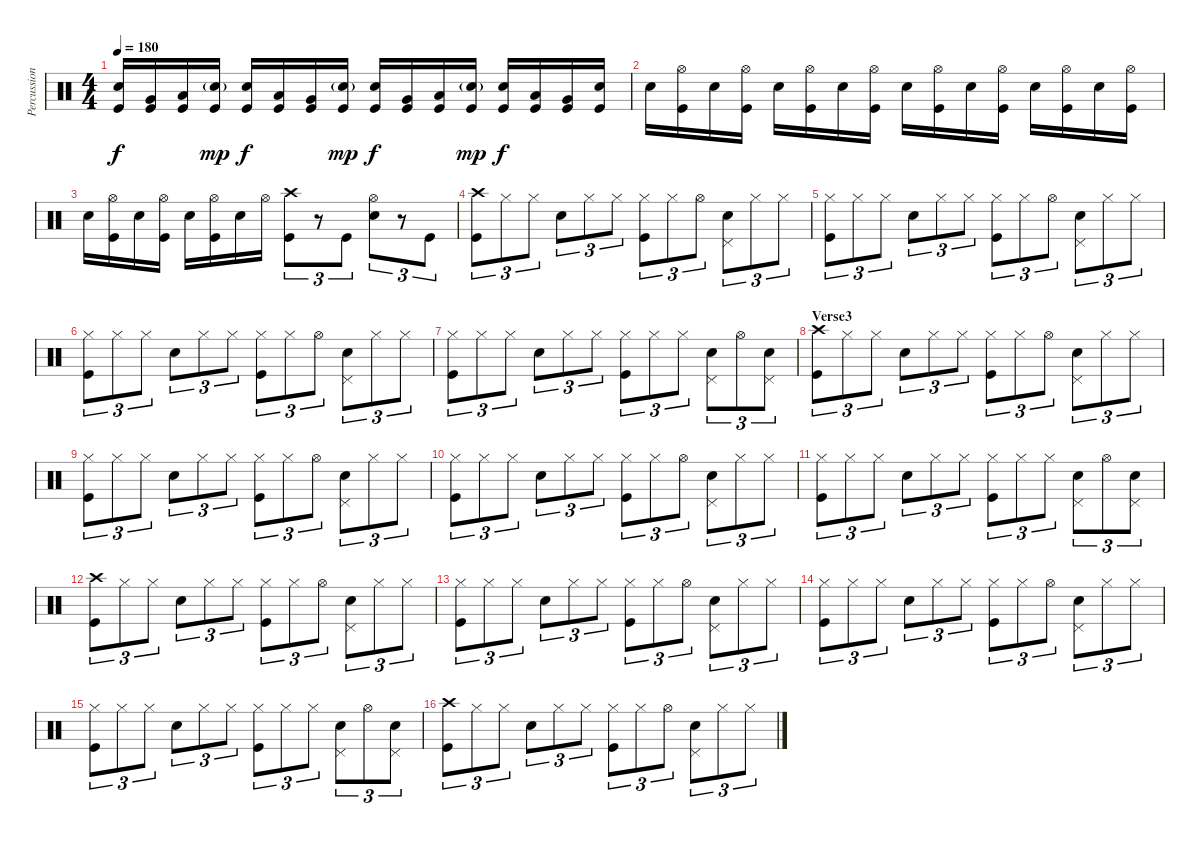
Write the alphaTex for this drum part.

\track ("Percussions" "Percussion") {instrument percussion}
\staff {score}
\articulation defaults
\ts (4 4)
\tempo 180
\clef neutral
\ks c
("Electric Snare (hit)" "Kick (hit)").16{dy f} ("Very Low Tom (hit)" "Kick (hit)").16 ("Low Floor Tom (hit)" "Kick (hit)").16 ("Electric Snare (hit)"{g} "Kick (hit)").16{dy mp} ("Electric Snare (hit)" "Kick (hit)").16{dy f} ("Low Tom (hit)" "Kick (hit)").16 ("Very Low Tom (hit)" "Kick (hit)").16 ("Electric Snare (hit)"{g} "Kick (hit)").16{dy mp} ("Electric Snare (hit)" "Kick (hit)").16{dy f} ("Very Low Tom (hit)" "Kick (hit)").16 ("Low Floor Tom (hit)" "Kick (hit)").16 ("Electric Snare (hit)"{g} "Kick (hit)").16{dy mp} ("Electric Snare (hit)" "Kick (hit)").16{dy f} ("Low Tom (hit)" "Kick (hit)").16 ("Very Low Tom (hit)" "Kick (hit)").16 ("Electric Snare (hit)" "Kick (hit)").16 |
"Electric Snare (hit)".16 ("Hi-Hat (open)" "Kick (hit)").16 "Electric Snare (hit)".16 ("Hi-Hat (open)" "Kick (hit)").16 "Electric Snare (hit)".16 ("Hi-Hat (open)" "Kick (hit)").16 "Electric Snare (hit)".16 ("Hi-Hat (open)" "Kick (hit)").16 "Electric Snare (hit)".16 ("Hi-Hat (open)" "Kick (hit)").16 "Electric Snare (hit)".16 ("Hi-Hat (open)" "Kick (hit)").16 "Electric Snare (hit)".16 ("Hi-Hat (open)" "Kick (hit)").16 "Electric Snare (hit)".16 ("Hi-Hat (open)" "Kick (hit)").16 |
"Electric Snare (hit)".16 ("Hi-Hat (open)" "Kick (hit)").16 "Electric Snare (hit)".16 ("Hi-Hat (open)" "Kick (hit)").16 "Electric Snare (hit)".16 ("Hi-Hat (open)" "Kick (hit)").16 "Electric Snare (hit)".16 "Hi-Hat (open)".16 ("Crash high (hit)" "Kick (hit)").8{tu (3 2)} r.8{tu (3 2)} "Kick (hit)".8{tu (3 2)} ("Hi-Hat (open)" "Electric Snare (hit)").8{tu (3 2)} r.8{tu (3 2)} "Kick (hit)".8{tu (3 2)} |
("Crash high (hit)" "Kick (hit)").8{tu (3 2)} "Hi-Hat (closed)".8{tu (3 2)} "Hi-Hat (closed)".8{tu (3 2)} "Electric Snare (hit)".8{tu (3 2)} "Hi-Hat (closed)".8{tu (3 2)} "Hi-Hat (closed)".8{tu (3 2)} ("Hi-Hat (closed)" "Kick (hit)").8{tu (3 2)} "Hi-Hat (closed)".8{tu (3 2)} "Hi-Hat (open)".8{tu (3 2)} ("Pedal Hi-Hat (hit)" "Electric Snare (hit)").8{tu (3 2)} "Hi-Hat (closed)".8{tu (3 2)} "Hi-Hat (closed)".8{tu (3 2)} |
("Hi-Hat (closed)" "Kick (hit)").8{tu (3 2)} "Hi-Hat (closed)".8{tu (3 2)} "Hi-Hat (closed)".8{tu (3 2)} "Electric Snare (hit)".8{tu (3 2)} "Hi-Hat (closed)".8{tu (3 2)} "Hi-Hat (closed)".8{tu (3 2)} ("Hi-Hat (closed)" "Kick (hit)").8{tu (3 2)} "Hi-Hat (closed)".8{tu (3 2)} "Hi-Hat (open)".8{tu (3 2)} ("Pedal Hi-Hat (hit)" "Electric Snare (hit)").8{tu (3 2)} "Hi-Hat (closed)".8{tu (3 2)} "Hi-Hat (closed)".8{tu (3 2)} |
("Hi-Hat (closed)" "Kick (hit)").8{tu (3 2)} "Hi-Hat (closed)".8{tu (3 2)} "Hi-Hat (closed)".8{tu (3 2)} "Electric Snare (hit)".8{tu (3 2)} "Hi-Hat (closed)".8{tu (3 2)} "Hi-Hat (closed)".8{tu (3 2)} ("Hi-Hat (closed)" "Kick (hit)").8{tu (3 2)} "Hi-Hat (closed)".8{tu (3 2)} "Hi-Hat (open)".8{tu (3 2)} ("Pedal Hi-Hat (hit)" "Electric Snare (hit)").8{tu (3 2)} "Hi-Hat (closed)".8{tu (3 2)} "Hi-Hat (closed)".8{tu (3 2)} |
("Hi-Hat (closed)" "Kick (hit)").8{tu (3 2)} "Hi-Hat (closed)".8{tu (3 2)} "Hi-Hat (closed)".8{tu (3 2)} "Electric Snare (hit)".8{tu (3 2)} "Hi-Hat (closed)".8{tu (3 2)} "Hi-Hat (closed)".8{tu (3 2)} ("Hi-Hat (closed)" "Kick (hit)").8{tu (3 2)} "Hi-Hat (closed)".8{tu (3 2)} "Hi-Hat (closed)".8{tu (3 2)} ("Pedal Hi-Hat (hit)" "Electric Snare (hit)").8{tu (3 2)} "Hi-Hat (open)".8{tu (3 2)} ("Pedal Hi-Hat (hit)" "Electric Snare (hit)").8{tu (3 2)} |
\section ("" "Verse3")
("Crash high (hit)" "Kick (hit)").8{tu (3 2)} "Hi-Hat (closed)".8{tu (3 2)} "Hi-Hat (closed)".8{tu (3 2)} "Electric Snare (hit)".8{tu (3 2)} "Hi-Hat (closed)".8{tu (3 2)} "Hi-Hat (closed)".8{tu (3 2)} ("Hi-Hat (closed)" "Kick (hit)").8{tu (3 2)} "Hi-Hat (closed)".8{tu (3 2)} "Hi-Hat (open)".8{tu (3 2)} ("Pedal Hi-Hat (hit)" "Electric Snare (hit)").8{tu (3 2)} "Hi-Hat (closed)".8{tu (3 2)} "Hi-Hat (closed)".8{tu (3 2)} |
("Hi-Hat (closed)" "Kick (hit)").8{tu (3 2)} "Hi-Hat (closed)".8{tu (3 2)} "Hi-Hat (closed)".8{tu (3 2)} "Electric Snare (hit)".8{tu (3 2)} "Hi-Hat (closed)".8{tu (3 2)} "Hi-Hat (closed)".8{tu (3 2)} ("Hi-Hat (closed)" "Kick (hit)").8{tu (3 2)} "Hi-Hat (closed)".8{tu (3 2)} "Hi-Hat (open)".8{tu (3 2)} ("Pedal Hi-Hat (hit)" "Electric Snare (hit)").8{tu (3 2)} "Hi-Hat (closed)".8{tu (3 2)} "Hi-Hat (closed)".8{tu (3 2)} |
("Hi-Hat (closed)" "Kick (hit)").8{tu (3 2)} "Hi-Hat (closed)".8{tu (3 2)} "Hi-Hat (closed)".8{tu (3 2)} "Electric Snare (hit)".8{tu (3 2)} "Hi-Hat (closed)".8{tu (3 2)} "Hi-Hat (closed)".8{tu (3 2)} ("Hi-Hat (closed)" "Kick (hit)").8{tu (3 2)} "Hi-Hat (closed)".8{tu (3 2)} "Hi-Hat (open)".8{tu (3 2)} ("Pedal Hi-Hat (hit)" "Electric Snare (hit)").8{tu (3 2)} "Hi-Hat (closed)".8{tu (3 2)} "Hi-Hat (closed)".8{tu (3 2)} |
("Hi-Hat (closed)" "Kick (hit)").8{tu (3 2)} "Hi-Hat (closed)".8{tu (3 2)} "Hi-Hat (closed)".8{tu (3 2)} "Electric Snare (hit)".8{tu (3 2)} "Hi-Hat (closed)".8{tu (3 2)} "Hi-Hat (closed)".8{tu (3 2)} ("Hi-Hat (closed)" "Kick (hit)").8{tu (3 2)} "Hi-Hat (closed)".8{tu (3 2)} "Hi-Hat (closed)".8{tu (3 2)} ("Pedal Hi-Hat (hit)" "Electric Snare (hit)").8{tu (3 2)} "Hi-Hat (open)".8{tu (3 2)} ("Pedal Hi-Hat (hit)" "Electric Snare (hit)").8{tu (3 2)} |
("Crash high (hit)" "Kick (hit)").8{tu (3 2)} "Hi-Hat (closed)".8{tu (3 2)} "Hi-Hat (closed)".8{tu (3 2)} "Electric Snare (hit)".8{tu (3 2)} "Hi-Hat (closed)".8{tu (3 2)} "Hi-Hat (closed)".8{tu (3 2)} ("Hi-Hat (closed)" "Kick (hit)").8{tu (3 2)} "Hi-Hat (closed)".8{tu (3 2)} "Hi-Hat (open)".8{tu (3 2)} ("Pedal Hi-Hat (hit)" "Electric Snare (hit)").8{tu (3 2)} "Hi-Hat (closed)".8{tu (3 2)} "Hi-Hat (closed)".8{tu (3 2)} |
("Hi-Hat (closed)" "Kick (hit)").8{tu (3 2)} "Hi-Hat (closed)".8{tu (3 2)} "Hi-Hat (closed)".8{tu (3 2)} "Electric Snare (hit)".8{tu (3 2)} "Hi-Hat (closed)".8{tu (3 2)} "Hi-Hat (closed)".8{tu (3 2)} ("Hi-Hat (closed)" "Kick (hit)").8{tu (3 2)} "Hi-Hat (closed)".8{tu (3 2)} "Hi-Hat (open)".8{tu (3 2)} ("Pedal Hi-Hat (hit)" "Electric Snare (hit)").8{tu (3 2)} "Hi-Hat (closed)".8{tu (3 2)} "Hi-Hat (closed)".8{tu (3 2)} |
("Hi-Hat (closed)" "Kick (hit)").8{tu (3 2)} "Hi-Hat (closed)".8{tu (3 2)} "Hi-Hat (closed)".8{tu (3 2)} "Electric Snare (hit)".8{tu (3 2)} "Hi-Hat (closed)".8{tu (3 2)} "Hi-Hat (closed)".8{tu (3 2)} ("Hi-Hat (closed)" "Kick (hit)").8{tu (3 2)} "Hi-Hat (closed)".8{tu (3 2)} "Hi-Hat (open)".8{tu (3 2)} ("Pedal Hi-Hat (hit)" "Electric Snare (hit)").8{tu (3 2)} "Hi-Hat (closed)".8{tu (3 2)} "Hi-Hat (closed)".8{tu (3 2)} |
("Hi-Hat (closed)" "Kick (hit)").8{tu (3 2)} "Hi-Hat (closed)".8{tu (3 2)} "Hi-Hat (closed)".8{tu (3 2)} "Electric Snare (hit)".8{tu (3 2)} "Hi-Hat (closed)".8{tu (3 2)} "Hi-Hat (closed)".8{tu (3 2)} ("Hi-Hat (closed)" "Kick (hit)").8{tu (3 2)} "Hi-Hat (closed)".8{tu (3 2)} "Hi-Hat (closed)".8{tu (3 2)} ("Pedal Hi-Hat (hit)" "Electric Snare (hit)").8{tu (3 2)} "Hi-Hat (open)".8{tu (3 2)} ("Pedal Hi-Hat (hit)" "Electric Snare (hit)").8{tu (3 2)} |
("Crash high (hit)" "Kick (hit)").8{tu (3 2)} "Hi-Hat (closed)".8{tu (3 2)} "Hi-Hat (closed)".8{tu (3 2)} "Electric Snare (hit)".8{tu (3 2)} "Hi-Hat (closed)".8{tu (3 2)} "Hi-Hat (closed)".8{tu (3 2)} ("Hi-Hat (closed)" "Kick (hit)").8{tu (3 2)} "Hi-Hat (closed)".8{tu (3 2)} "Hi-Hat (open)".8{tu (3 2)} ("Pedal Hi-Hat (hit)" "Electric Snare (hit)").8{tu (3 2)} "Hi-Hat (closed)".8{tu (3 2)} "Hi-Hat (closed)".8{tu (3 2)}
